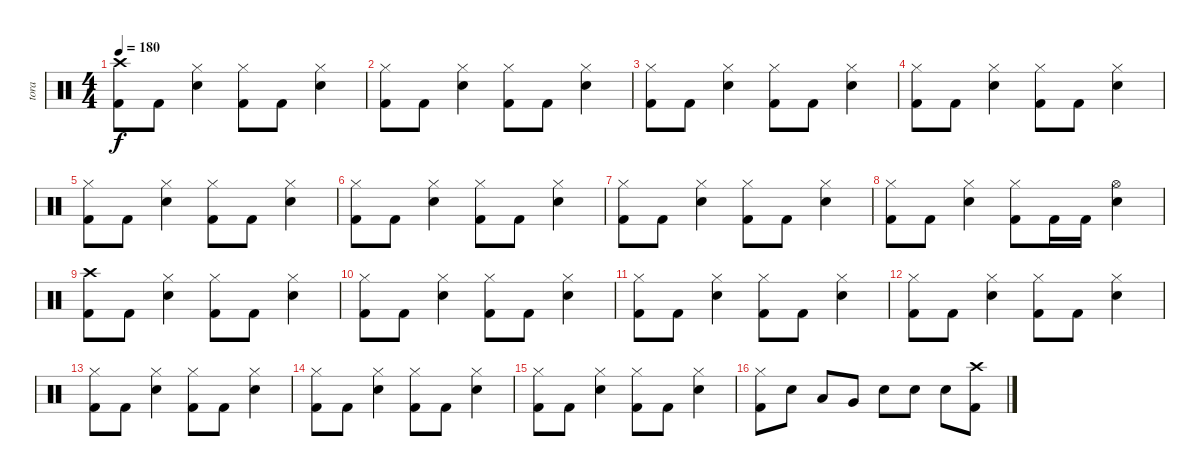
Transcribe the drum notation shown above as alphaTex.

\track ("tora" "tora") {instrument percussion}
\staff {score}
\articulation defaults
\ts (4 4)
\tempo 180
\clef neutral
\ks c
("Crash high (hit)" "Kick (hit) 2").8{dy f} "Kick (hit) 2".8 ("Hi-Hat (closed)" "Snare (hit) 2").4 ("Hi-Hat (closed)" "Kick (hit) 2").8 "Kick (hit) 2".8 ("Hi-Hat (closed)" "Snare (hit) 2").4 |
("Hi-Hat (closed)" "Kick (hit) 2").8 "Kick (hit) 2".8 ("Hi-Hat (closed)" "Snare (hit) 2").4 ("Hi-Hat (closed)" "Kick (hit) 2").8 "Kick (hit) 2".8 ("Hi-Hat (closed)" "Snare (hit) 2").4 |
("Hi-Hat (closed)" "Kick (hit) 2").8 "Kick (hit) 2".8 ("Hi-Hat (closed)" "Snare (hit) 2").4 ("Hi-Hat (closed)" "Kick (hit) 2").8 "Kick (hit) 2".8 ("Hi-Hat (closed)" "Snare (hit) 2").4 |
("Hi-Hat (closed)" "Kick (hit) 2").8 "Kick (hit) 2".8 ("Hi-Hat (closed)" "Snare (hit) 2").4 ("Hi-Hat (closed)" "Kick (hit) 2").8 "Kick (hit) 2".8 ("Hi-Hat (closed)" "Snare (hit) 2").4 |
("Hi-Hat (closed)" "Kick (hit) 2").8 "Kick (hit) 2".8 ("Hi-Hat (closed)" "Snare (hit) 2").4 ("Hi-Hat (closed)" "Kick (hit) 2").8 "Kick (hit) 2".8 ("Hi-Hat (closed)" "Snare (hit) 2").4 |
("Hi-Hat (closed)" "Kick (hit) 2").8 "Kick (hit) 2".8 ("Hi-Hat (closed)" "Snare (hit) 2").4 ("Hi-Hat (closed)" "Kick (hit) 2").8 "Kick (hit) 2".8 ("Hi-Hat (closed)" "Snare (hit) 2").4 |
("Hi-Hat (closed)" "Kick (hit) 2").8 "Kick (hit) 2".8 ("Hi-Hat (closed)" "Snare (hit) 2").4 ("Hi-Hat (closed)" "Kick (hit) 2").8 "Kick (hit) 2".8 ("Hi-Hat (closed)" "Snare (hit) 2").4 |
("Hi-Hat (closed)" "Kick (hit) 2").8 "Kick (hit) 2".8 ("Hi-Hat (closed)" "Snare (hit) 2").4 ("Hi-Hat (closed)" "Kick (hit) 2").8 "Kick (hit) 2".16 "Kick (hit) 2".16 ("Hi-Hat (open)" "Snare (hit) 2").4 |
("Crash high (hit)" "Kick (hit) 2").8 "Kick (hit) 2".8 ("Hi-Hat (closed)" "Snare (hit) 2").4 ("Hi-Hat (closed)" "Kick (hit) 2").8 "Kick (hit) 2".8 ("Hi-Hat (closed)" "Snare (hit) 2").4 |
("Hi-Hat (closed)" "Kick (hit) 2").8 "Kick (hit) 2".8 ("Hi-Hat (closed)" "Snare (hit) 2").4 ("Hi-Hat (closed)" "Kick (hit) 2").8 "Kick (hit) 2".8 ("Hi-Hat (closed)" "Snare (hit) 2").4 |
("Hi-Hat (closed)" "Kick (hit) 2").8 "Kick (hit) 2".8 ("Hi-Hat (closed)" "Snare (hit) 2").4 ("Hi-Hat (closed)" "Kick (hit) 2").8 "Kick (hit) 2".8 ("Hi-Hat (closed)" "Snare (hit) 2").4 |
("Hi-Hat (closed)" "Kick (hit) 2").8 "Kick (hit) 2".8 ("Hi-Hat (closed)" "Snare (hit) 2").4 ("Hi-Hat (closed)" "Kick (hit) 2").8 "Kick (hit) 2".8 ("Hi-Hat (closed)" "Snare (hit) 2").4 |
("Hi-Hat (closed)" "Kick (hit) 2").8 "Kick (hit) 2".8 ("Hi-Hat (closed)" "Snare (hit) 2").4 ("Hi-Hat (closed)" "Kick (hit) 2").8 "Kick (hit) 2".8 ("Hi-Hat (closed)" "Snare (hit) 2").4 |
("Hi-Hat (closed)" "Kick (hit) 2").8 "Kick (hit) 2".8 ("Hi-Hat (closed)" "Snare (hit) 2").4 ("Hi-Hat (closed)" "Kick (hit) 2").8 "Kick (hit) 2".8 ("Hi-Hat (closed)" "Snare (hit) 2").4 |
("Hi-Hat (closed)" "Kick (hit) 2").8 "Kick (hit) 2".8 ("Hi-Hat (closed)" "Snare (hit) 2").4 ("Hi-Hat (closed)" "Kick (hit) 2").8 "Kick (hit) 2".8 ("Hi-Hat (closed)" "Snare (hit) 2").4 |
("Hi-Hat (closed)" "Kick (hit) 2").8 "Snare (hit) 2".8 "Low Tom (hit)".8 "Very Low Tom (hit)".8 "Snare (hit) 2".8 "Snare (hit) 2".8 "Snare (hit) 2".8 ("Crash high (hit)" "Kick (hit) 2").8
